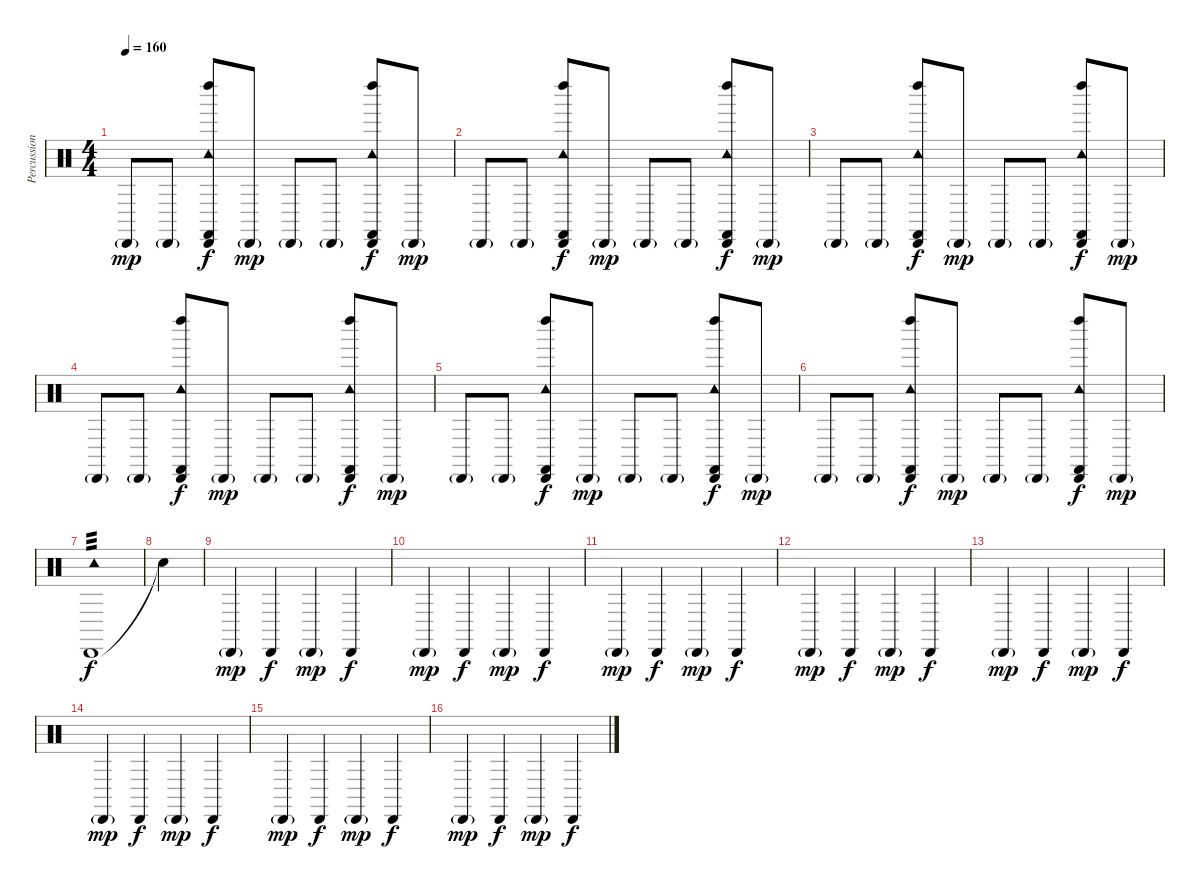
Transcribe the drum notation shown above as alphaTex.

\track ("Percussion" "Percussion") {instrument percussion}
\staff {score}
\articulation defaults
\ts (4 4)
\tempo 160
\clef neutral
\ks c "Cabasa (hit)"{g}.8{dy mp} "Cabasa (hit)"{g}.8
("Cabasa (hit)" "Tambourine (hit)" "Left Maraca (hit)" "Castanets (hit)").8{dy f} "Cabasa (hit)"{g}.8{dy mp} "Cabasa (hit)"{g}.8 "Cabasa (hit)"{g}.8 ("Cabasa (hit)" "Tambourine (hit)" "Left Maraca (hit)" "Castanets (hit)").8{dy f} "Cabasa (hit)"{g}.8{dy mp} |
"Cabasa (hit)"{g}.8 "Cabasa (hit)"{g}.8 ("Cabasa (hit)" "Tambourine (hit)" "Left Maraca (hit)" "Castanets (hit)").8{dy f} "Cabasa (hit)"{g}.8{dy mp} "Cabasa (hit)"{g}.8 "Cabasa (hit)"{g}.8 ("Cabasa (hit)" "Tambourine (hit)" "Left Maraca (hit)" "Castanets (hit)").8{dy f} "Cabasa (hit)"{g}.8{dy mp} |
"Cabasa (hit)"{g}.8 "Cabasa (hit)"{g}.8 ("Cabasa (hit)" "Tambourine (hit)" "Left Maraca (hit)" "Castanets (hit)").8{dy f} "Cabasa (hit)"{g}.8{dy mp} "Cabasa (hit)"{g}.8 "Cabasa (hit)"{g}.8 ("Cabasa (hit)" "Tambourine (hit)" "Left Maraca (hit)" "Castanets (hit)").8{dy f} "Cabasa (hit)"{g}.8{dy mp} |
"Cabasa (hit)"{g}.8 "Cabasa (hit)"{g}.8 ("Cabasa (hit)" "Tambourine (hit)" "Left Maraca (hit)" "Castanets (hit)").8{dy f} "Cabasa (hit)"{g}.8{dy mp} "Cabasa (hit)"{g}.8 "Cabasa (hit)"{g}.8 ("Cabasa (hit)" "Tambourine (hit)" "Left Maraca (hit)" "Castanets (hit)").8{dy f} "Cabasa (hit)"{g}.8{dy mp} |
"Cabasa (hit)"{g}.8 "Cabasa (hit)"{g}.8 ("Cabasa (hit)" "Tambourine (hit)" "Left Maraca (hit)" "Castanets (hit)").8{dy f} "Cabasa (hit)"{g}.8{dy mp} "Cabasa (hit)"{g}.8 "Cabasa (hit)"{g}.8 ("Cabasa (hit)" "Tambourine (hit)" "Left Maraca (hit)" "Castanets (hit)").8{dy f} "Cabasa (hit)"{g}.8{dy mp} |
"Cabasa (hit)"{g}.8 "Cabasa (hit)"{g}.8 ("Cabasa (hit)" "Tambourine (hit)" "Left Maraca (hit)" "Castanets (hit)").8{dy f} "Cabasa (hit)"{g}.8{dy mp} "Cabasa (hit)"{g}.8 "Cabasa (hit)"{g}.8 ("Cabasa (hit)" "Tambourine (hit)" "Left Maraca (hit)" "Castanets (hit)").8{dy f} "Cabasa (hit)"{g}.8{dy mp} |
("Cabasa (hit)" "Tambourine (hit)").1{tp 3 dy f} |
"Snare (hit)"{t}.4 |
"Cabasa (hit)"{g}.4{dy mp} "Cabasa (hit)".4{dy f} "Cabasa (hit)"{g}.4{dy mp} "Cabasa (hit)".4{dy f} |
"Cabasa (hit)"{g}.4{dy mp} "Cabasa (hit)".4{dy f} "Cabasa (hit)"{g}.4{dy mp} "Cabasa (hit)".4{dy f} |
"Cabasa (hit)"{g}.4{dy mp} "Cabasa (hit)".4{dy f} "Cabasa (hit)"{g}.4{dy mp} "Cabasa (hit)".4{dy f} |
"Cabasa (hit)"{g}.4{dy mp} "Cabasa (hit)".4{dy f} "Cabasa (hit)"{g}.4{dy mp} "Cabasa (hit)".4{dy f} |
"Cabasa (hit)"{g}.4{dy mp} "Cabasa (hit)".4{dy f} "Cabasa (hit)"{g}.4{dy mp} "Cabasa (hit)".4{dy f} |
"Cabasa (hit)"{g}.4{dy mp} "Cabasa (hit)".4{dy f} "Cabasa (hit)"{g}.4{dy mp} "Cabasa (hit)".4{dy f} |
"Cabasa (hit)"{g}.4{dy mp} "Cabasa (hit)".4{dy f} "Cabasa (hit)"{g}.4{dy mp} "Cabasa (hit)".4{dy f} |
"Cabasa (hit)"{g}.4{dy mp} "Cabasa (hit)".4{dy f} "Cabasa (hit)"{g}.4{dy mp} "Cabasa (hit)".4{dy f}
